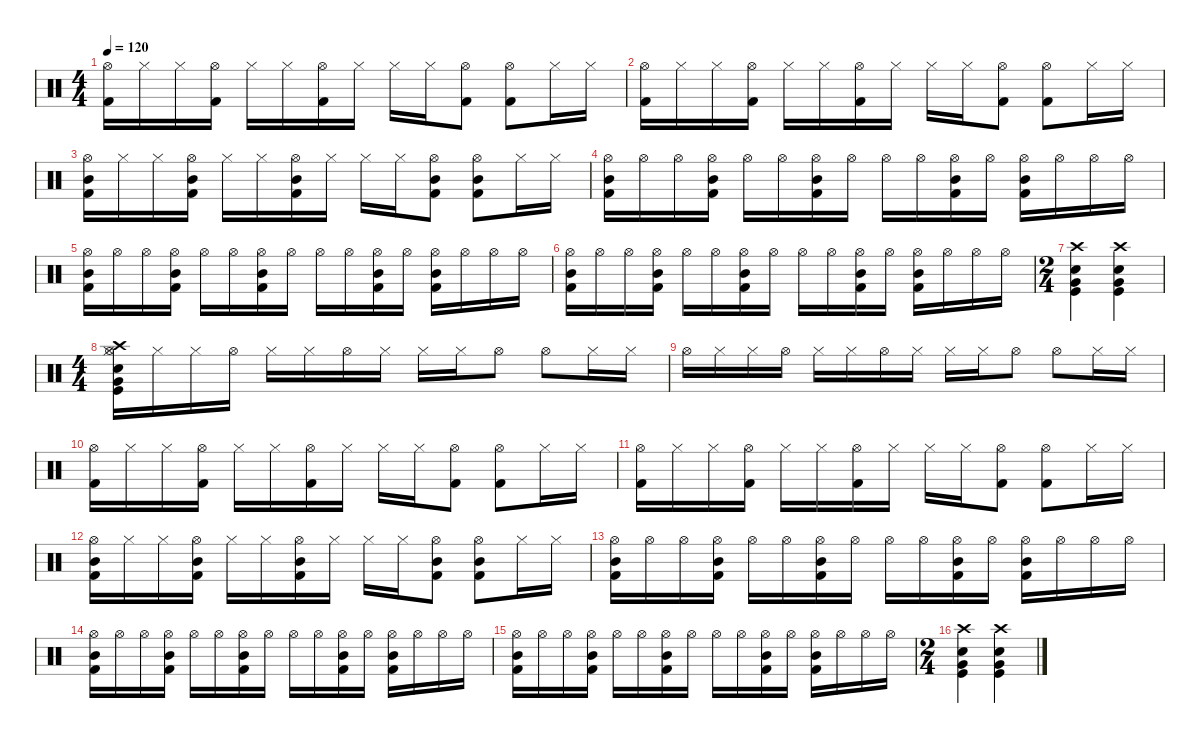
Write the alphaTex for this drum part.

\defaultSystemsLayout 4
\hideDynamics
\bracketExtendMode nobrackets
\singleTrackTrackNamePolicy hidden
\multiTrackTrackNamePolicy hidden
\firstSystemTrackNameMode fullname
\firstSystemTrackNameOrientation horizontal
\otherSystemsTrackNameOrientation horizontal
\track ("DRUMS" "drm.") {defaultSystemsLayout 4 instrument percussion}
\staff {score}
\articulation defaults
\ts (4 4)
\tempo 120
\clef neutral
\ks c
("Kick (hit) 2" "Hi-Hat (open)").16{dy f beam Down} "Hi-Hat (closed)".16{beam Down} "Hi-Hat (closed)".16{beam Down} ("Kick (hit) 2" "Hi-Hat (open)").16{beam Down} "Hi-Hat (closed)".16{beam Down} "Hi-Hat (closed)".16{beam Down} ("Kick (hit) 2" "Hi-Hat (open)").16{beam Down} "Hi-Hat (closed)".16{beam Down} "Hi-Hat (closed)".16{beam Down} "Hi-Hat (closed)".16{beam Down} ("Kick (hit) 2" "Hi-Hat (open)").8{beam Down} ("Kick (hit) 2" "Hi-Hat (open)").8{beam Down} "Hi-Hat (closed)".16{beam Down} "Hi-Hat (closed)".16{beam Down} |
("Kick (hit) 2" "Hi-Hat (open)").16{beam Down} "Hi-Hat (closed)".16{beam Down} "Hi-Hat (closed)".16{beam Down} ("Kick (hit) 2" "Hi-Hat (open)").16{beam Down} "Hi-Hat (closed)".16{beam Down} "Hi-Hat (closed)".16{beam Down} ("Kick (hit) 2" "Hi-Hat (open)").16{beam Down} "Hi-Hat (closed)".16{beam Down} "Hi-Hat (closed)".16{beam Down} "Hi-Hat (closed)".16{beam Down} ("Kick (hit) 2" "Hi-Hat (open)").8{beam Down} ("Kick (hit) 2" "Hi-Hat (open)").8{beam Down} "Hi-Hat (closed)".16{beam Down} "Hi-Hat (closed)".16{beam Down} |
("Mid Tom (hit)" "Kick (hit) 2" "Hi-Hat (open)").16{beam Down} "Hi-Hat (closed)".16{beam Down} "Hi-Hat (closed)".16{beam Down} ("Mid Tom (hit)" "Kick (hit) 2" "Hi-Hat (open)").16{beam Down} "Hi-Hat (closed)".16{beam Down} "Hi-Hat (closed)".16{beam Down} ("Mid Tom (hit)" "Kick (hit) 2" "Hi-Hat (open)").16{beam Down} "Hi-Hat (closed)".16{beam Down} "Hi-Hat (closed)".16{beam Down} "Hi-Hat (closed)".16{beam Down} ("Mid Tom (hit)" "Kick (hit) 2" "Hi-Hat (open)").8{beam Down} ("Mid Tom (hit)" "Kick (hit) 2" "Hi-Hat (open)").8{beam Down} "Hi-Hat (closed)".16{beam Down} "Hi-Hat (closed)".16{beam Down} |
("Mid Tom (hit)" "Kick (hit) 2" "Hi-Hat (open)").16{beam Down} "Hi-Hat (open)".16{beam Down} "Hi-Hat (open)".16{beam Down} ("Mid Tom (hit)" "Kick (hit) 2" "Hi-Hat (open)").16{beam Down} "Hi-Hat (open)".16{beam Down} "Hi-Hat (open)".16{beam Down} ("Mid Tom (hit)" "Kick (hit) 2" "Hi-Hat (open)").16{beam Down} "Hi-Hat (open)".16{beam Down} "Hi-Hat (open)".16{beam Down} "Hi-Hat (open)".16{beam Down} ("Mid Tom (hit)" "Kick (hit) 2" "Hi-Hat (open)").16{beam Down} "Hi-Hat (open)".16{beam Down} ("Mid Tom (hit)" "Kick (hit) 2" "Hi-Hat (open)").16{beam Down} "Hi-Hat (open)".16{beam Down} "Hi-Hat (open)".16{beam Down} "Hi-Hat (open)".16{beam Down} |
("Mid Tom (hit)" "Kick (hit) 2" "Hi-Hat (open)").16{beam Down} "Hi-Hat (open)".16{beam Down} "Hi-Hat (open)".16{beam Down} ("Mid Tom (hit)" "Kick (hit) 2" "Hi-Hat (open)").16{beam Down} "Hi-Hat (open)".16{beam Down} "Hi-Hat (open)".16{beam Down} ("Mid Tom (hit)" "Kick (hit) 2" "Hi-Hat (open)").16{beam Down} "Hi-Hat (open)".16{beam Down} "Hi-Hat (open)".16{beam Down} "Hi-Hat (open)".16{beam Down} ("Mid Tom (hit)" "Kick (hit) 2" "Hi-Hat (open)").16{beam Down} "Hi-Hat (open)".16{beam Down} ("Mid Tom (hit)" "Kick (hit) 2" "Hi-Hat (open)").16{beam Down} "Hi-Hat (open)".16{beam Down} "Hi-Hat (open)".16{beam Down} "Hi-Hat (open)".16{beam Down} |
("Mid Tom (hit)" "Kick (hit) 2" "Hi-Hat (open)").16{beam Down} "Hi-Hat (open)".16{beam Down} "Hi-Hat (open)".16{beam Down} ("Mid Tom (hit)" "Kick (hit) 2" "Hi-Hat (open)").16{beam Down} "Hi-Hat (open)".16{beam Down} "Hi-Hat (open)".16{beam Down} ("Mid Tom (hit)" "Kick (hit) 2" "Hi-Hat (open)").16{beam Down} "Hi-Hat (open)".16{beam Down} "Hi-Hat (open)".16{beam Down} "Hi-Hat (open)".16{beam Down} ("Mid Tom (hit)" "Kick (hit) 2" "Hi-Hat (open)").16{beam Down} "Hi-Hat (open)".16{beam Down} ("Mid Tom (hit)" "Kick (hit) 2" "Hi-Hat (open)").16{beam Down} "Hi-Hat (open)".16{beam Down} "Hi-Hat (open)".16{beam Down} "Hi-Hat (open)".16{beam Down} |
\ts (2 4)
\beaming (8 2 2)
("Snare (hit) 2" "Crash high (hit)" "Very Low Tom (hit)" "Kick (hit)").4{beam Down} ("Snare (hit) 2" "Crash high (hit)" "Very Low Tom (hit)" "Kick (hit)").4{beam Down} |
\ts (4 4)
\beaming (8 2 2 2 2)
("Crash high (hit)" "Snare (hit) 2" "Very Low Tom (hit)" "Hi-Hat (open)" "Kick (hit)" "Hi-Hat (closed)").16{beam Down} "Hi-Hat (closed)".16{beam Down} "Hi-Hat (closed)".16{beam Down} "Hi-Hat (open)".16{beam Down} "Hi-Hat (closed)".16{beam Down} "Hi-Hat (closed)".16{beam Down} "Hi-Hat (open)".16{beam Down} "Hi-Hat (closed)".16{beam Down} "Hi-Hat (closed)".16{beam Down} "Hi-Hat (closed)".16{beam Down} "Hi-Hat (open)".8{beam Down} "Hi-Hat (open)".8{beam Down} "Hi-Hat (closed)".16{beam Down} "Hi-Hat (closed)".16{beam Down} |
"Hi-Hat (open)".16{beam Down} "Hi-Hat (closed)".16{beam Down} "Hi-Hat (closed)".16{beam Down} "Hi-Hat (open)".16{beam Down} "Hi-Hat (closed)".16{beam Down} "Hi-Hat (closed)".16{beam Down} "Hi-Hat (open)".16{beam Down} "Hi-Hat (closed)".16{beam Down} "Hi-Hat (closed)".16{beam Down} "Hi-Hat (closed)".16{beam Down} "Hi-Hat (open)".8{beam Down} "Hi-Hat (open)".8{beam Down} "Hi-Hat (closed)".16{beam Down} "Hi-Hat (closed)".16{beam Down} |
("Kick (hit) 2" "Hi-Hat (open)").16{beam Down} "Hi-Hat (closed)".16{beam Down} "Hi-Hat (closed)".16{beam Down} ("Kick (hit) 2" "Hi-Hat (open)").16{beam Down} "Hi-Hat (closed)".16{beam Down} "Hi-Hat (closed)".16{beam Down} ("Kick (hit) 2" "Hi-Hat (open)").16{beam Down} "Hi-Hat (closed)".16{beam Down} "Hi-Hat (closed)".16{beam Down} "Hi-Hat (closed)".16{beam Down} ("Kick (hit) 2" "Hi-Hat (open)").8{beam Down} ("Kick (hit) 2" "Hi-Hat (open)").8{beam Down} "Hi-Hat (closed)".16{beam Down} "Hi-Hat (closed)".16{beam Down} |
("Kick (hit) 2" "Hi-Hat (open)").16{beam Down} "Hi-Hat (closed)".16{beam Down} "Hi-Hat (closed)".16{beam Down} ("Kick (hit) 2" "Hi-Hat (open)").16{beam Down} "Hi-Hat (closed)".16{beam Down} "Hi-Hat (closed)".16{beam Down} ("Kick (hit) 2" "Hi-Hat (open)").16{beam Down} "Hi-Hat (closed)".16{beam Down} "Hi-Hat (closed)".16{beam Down} "Hi-Hat (closed)".16{beam Down} ("Kick (hit) 2" "Hi-Hat (open)").8{beam Down} ("Kick (hit) 2" "Hi-Hat (open)").8{beam Down} "Hi-Hat (closed)".16{beam Down} "Hi-Hat (closed)".16{beam Down} |
("Mid Tom (hit)" "Kick (hit) 2" "Hi-Hat (open)").16{beam Down} "Hi-Hat (closed)".16{beam Down} "Hi-Hat (closed)".16{beam Down} ("Mid Tom (hit)" "Kick (hit) 2" "Hi-Hat (open)").16{beam Down} "Hi-Hat (closed)".16{beam Down} "Hi-Hat (closed)".16{beam Down} ("Mid Tom (hit)" "Kick (hit) 2" "Hi-Hat (open)").16{beam Down} "Hi-Hat (closed)".16{beam Down} "Hi-Hat (closed)".16{beam Down} "Hi-Hat (closed)".16{beam Down} ("Mid Tom (hit)" "Kick (hit) 2" "Hi-Hat (open)").8{beam Down} ("Mid Tom (hit)" "Kick (hit) 2" "Hi-Hat (open)").8{beam Down} "Hi-Hat (closed)".16{beam Down} "Hi-Hat (closed)".16{beam Down} |
("Mid Tom (hit)" "Kick (hit) 2" "Hi-Hat (open)").16{beam Down} "Hi-Hat (open)".16{beam Down} "Hi-Hat (open)".16{beam Down} ("Mid Tom (hit)" "Kick (hit) 2" "Hi-Hat (open)").16{beam Down} "Hi-Hat (open)".16{beam Down} "Hi-Hat (open)".16{beam Down} ("Mid Tom (hit)" "Kick (hit) 2" "Hi-Hat (open)").16{beam Down} "Hi-Hat (open)".16{beam Down} "Hi-Hat (open)".16{beam Down} "Hi-Hat (open)".16{beam Down} ("Mid Tom (hit)" "Kick (hit) 2" "Hi-Hat (open)").16{beam Down} "Hi-Hat (open)".16{beam Down} ("Mid Tom (hit)" "Kick (hit) 2" "Hi-Hat (open)").16{beam Down} "Hi-Hat (open)".16{beam Down} "Hi-Hat (open)".16{beam Down} "Hi-Hat (open)".16{beam Down} |
("Mid Tom (hit)" "Kick (hit) 2" "Hi-Hat (open)").16{beam Down} "Hi-Hat (open)".16{beam Down} "Hi-Hat (open)".16{beam Down} ("Mid Tom (hit)" "Kick (hit) 2" "Hi-Hat (open)").16{beam Down} "Hi-Hat (open)".16{beam Down} "Hi-Hat (open)".16{beam Down} ("Mid Tom (hit)" "Kick (hit) 2" "Hi-Hat (open)").16{beam Down} "Hi-Hat (open)".16{beam Down} "Hi-Hat (open)".16{beam Down} "Hi-Hat (open)".16{beam Down} ("Mid Tom (hit)" "Kick (hit) 2" "Hi-Hat (open)").16{beam Down} "Hi-Hat (open)".16{beam Down} ("Mid Tom (hit)" "Kick (hit) 2" "Hi-Hat (open)").16{beam Down} "Hi-Hat (open)".16{beam Down} "Hi-Hat (open)".16{beam Down} "Hi-Hat (open)".16{beam Down} |
("Mid Tom (hit)" "Kick (hit) 2" "Hi-Hat (open)").16{beam Down} "Hi-Hat (open)".16{beam Down} "Hi-Hat (open)".16{beam Down} ("Mid Tom (hit)" "Kick (hit) 2" "Hi-Hat (open)").16{beam Down} "Hi-Hat (open)".16{beam Down} "Hi-Hat (open)".16{beam Down} ("Mid Tom (hit)" "Kick (hit) 2" "Hi-Hat (open)").16{beam Down} "Hi-Hat (open)".16{beam Down} "Hi-Hat (open)".16{beam Down} "Hi-Hat (open)".16{beam Down} ("Mid Tom (hit)" "Kick (hit) 2" "Hi-Hat (open)").16{beam Down} "Hi-Hat (open)".16{beam Down} ("Mid Tom (hit)" "Kick (hit) 2" "Hi-Hat (open)").16{beam Down} "Hi-Hat (open)".16{beam Down} "Hi-Hat (open)".16{beam Down} "Hi-Hat (open)".16{beam Down} |
\ts (2 4)
\beaming (8 2 2)
("Snare (hit) 2" "Crash high (hit)" "Very Low Tom (hit)" "Kick (hit)").4{beam Down} ("Snare (hit) 2" "Crash high (hit)" "Very Low Tom (hit)" "Kick (hit)").4{beam Down}
